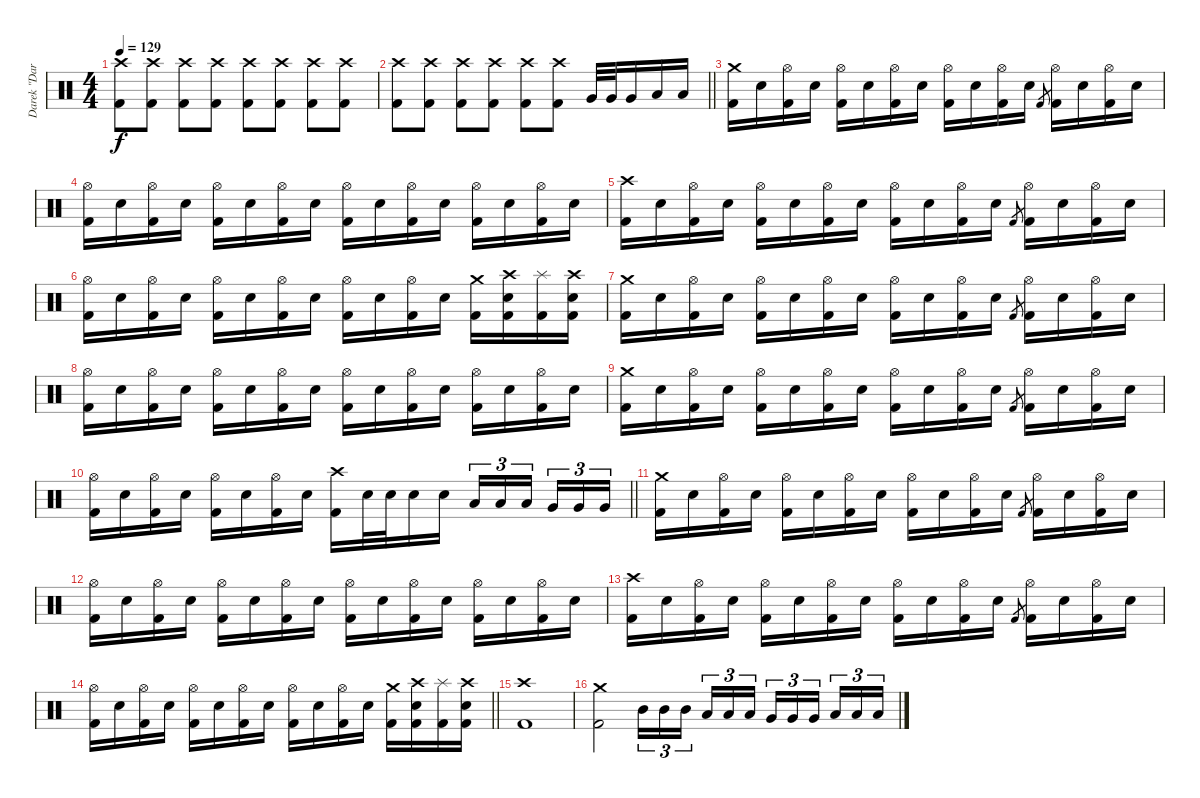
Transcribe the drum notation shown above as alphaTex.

\track ("Darek \"Daray\" Brzozowski " "Darek \"Dar") {instrument percussion}
\staff {score}
\articulation defaults
\ts (4 4)
\tempo 129
\clef neutral
\ks c
("Crash high (hit)" "Kick (hit) 2").8{dy f} ("Crash high (hit)" "Kick (hit) 2").8 ("Crash high (hit)" "Kick (hit) 2").8 ("Crash high (hit)" "Kick (hit) 2").8 ("Crash high (hit)" "Kick (hit) 2").8 ("Crash high (hit)" "Kick (hit) 2").8 ("Crash high (hit)" "Kick (hit) 2").8 ("Crash high (hit)" "Kick (hit) 2").8 |
\barLineRight lightlight
("Crash high (hit)" "Kick (hit) 2").8 ("Crash high (hit)" "Kick (hit) 2").8 ("Crash high (hit)" "Kick (hit) 2").8 ("Crash high (hit)" "Kick (hit) 2").8 ("Crash high (hit)" "Kick (hit) 2").8 ("Crash high (hit)" "Kick (hit) 2").8 "Very Low Tom (hit)".32 "Very Low Tom (hit)".32 "Very Low Tom (hit)".16 "Low Floor Tom (hit)".16 "Low Floor Tom (hit)".16 |
("Crash medium (hit)" "Kick (hit) 2").16 "Electric Snare (hit)".16 ("Hi-Hat (open)" "Kick (hit) 2").16 "Electric Snare (hit)".16 ("Hi-Hat (open)" "Kick (hit) 2").16 "Electric Snare (hit)".16 ("Hi-Hat (open)" "Kick (hit) 2").16 "Electric Snare (hit)".16 ("Hi-Hat (open)" "Kick (hit) 2").16 "Electric Snare (hit)".16 ("Hi-Hat (open)" "Kick (hit) 2").16 "Electric Snare (hit)".16 "Kick (hit) 2".8{gr} ("Hi-Hat (open)" "Kick (hit) 2").16 "Electric Snare (hit)".16 ("Hi-Hat (open)" "Kick (hit) 2").16 "Electric Snare (hit)".16 |
("Hi-Hat (open)" "Kick (hit) 2").16 "Electric Snare (hit)".16 ("Hi-Hat (open)" "Kick (hit) 2").16 "Electric Snare (hit)".16 ("Hi-Hat (open)" "Kick (hit) 2").16 "Electric Snare (hit)".16 ("Hi-Hat (open)" "Kick (hit) 2").16 "Electric Snare (hit)".16 ("Hi-Hat (open)" "Kick (hit) 2").16 "Electric Snare (hit)".16 ("Hi-Hat (open)" "Kick (hit) 2").16 "Electric Snare (hit)".16 ("Hi-Hat (open)" "Kick (hit) 2").16 "Electric Snare (hit)".16 ("Hi-Hat (open)" "Kick (hit) 2").16 "Electric Snare (hit)".16 |
("Crash high (hit)" "Kick (hit) 2").16 "Electric Snare (hit)".16 ("Hi-Hat (open)" "Kick (hit) 2").16 "Electric Snare (hit)".16 ("Hi-Hat (open)" "Kick (hit) 2").16 "Electric Snare (hit)".16 ("Hi-Hat (open)" "Kick (hit) 2").16 "Electric Snare (hit)".16 ("Hi-Hat (open)" "Kick (hit) 2").16 "Electric Snare (hit)".16 ("Hi-Hat (open)" "Kick (hit) 2").16 "Electric Snare (hit)".16 "Kick (hit) 2".8{gr} ("Hi-Hat (open)" "Kick (hit) 2").16 "Electric Snare (hit)".16 ("Hi-Hat (open)" "Kick (hit) 2").16 "Electric Snare (hit)".16 |
("Hi-Hat (open)" "Kick (hit) 2").16 "Electric Snare (hit)".16 ("Hi-Hat (open)" "Kick (hit) 2").16 "Electric Snare (hit)".16 ("Hi-Hat (open)" "Kick (hit) 2").16 "Electric Snare (hit)".16 ("Hi-Hat (open)" "Kick (hit) 2").16 "Electric Snare (hit)".16 ("Hi-Hat (open)" "Kick (hit) 2").16 "Electric Snare (hit)".16 ("Hi-Hat (open)" "Kick (hit) 2").16 "Electric Snare (hit)".16 ("Crash medium (hit)" "Kick (hit) 2").16 ("Crash high (hit)" "Electric Snare (hit)" "Kick (hit) 2").16 ("Splash (hit)" "Kick (hit) 2").16 ("Crash high (hit)" "Electric Snare (hit)" "Kick (hit) 2").16 |
("Crash medium (hit)" "Kick (hit) 2").16 "Electric Snare (hit)".16 ("Hi-Hat (open)" "Kick (hit) 2").16 "Electric Snare (hit)".16 ("Hi-Hat (open)" "Kick (hit) 2").16 "Electric Snare (hit)".16 ("Hi-Hat (open)" "Kick (hit) 2").16 "Electric Snare (hit)".16 ("Hi-Hat (open)" "Kick (hit) 2").16 "Electric Snare (hit)".16 ("Hi-Hat (open)" "Kick (hit) 2").16 "Electric Snare (hit)".16 "Kick (hit) 2".8{gr} ("Hi-Hat (open)" "Kick (hit) 2").16 "Electric Snare (hit)".16 ("Hi-Hat (open)" "Kick (hit) 2").16 "Electric Snare (hit)".16 |
("Hi-Hat (open)" "Kick (hit) 2").16 "Electric Snare (hit)".16 ("Hi-Hat (open)" "Kick (hit) 2").16 "Electric Snare (hit)".16 ("Hi-Hat (open)" "Kick (hit) 2").16 "Electric Snare (hit)".16 ("Hi-Hat (open)" "Kick (hit) 2").16 "Electric Snare (hit)".16 ("Hi-Hat (open)" "Kick (hit) 2").16 "Electric Snare (hit)".16 ("Hi-Hat (open)" "Kick (hit) 2").16 "Electric Snare (hit)".16 ("Hi-Hat (open)" "Kick (hit) 2").16 "Electric Snare (hit)".16 ("Hi-Hat (open)" "Kick (hit) 2").16 "Electric Snare (hit)".16 |
("Crash medium (hit)" "Kick (hit) 2").16 "Electric Snare (hit)".16 ("Hi-Hat (open)" "Kick (hit) 2").16 "Electric Snare (hit)".16 ("Hi-Hat (open)" "Kick (hit) 2").16 "Electric Snare (hit)".16 ("Hi-Hat (open)" "Kick (hit) 2").16 "Electric Snare (hit)".16 ("Hi-Hat (open)" "Kick (hit) 2").16 "Electric Snare (hit)".16 ("Hi-Hat (open)" "Kick (hit) 2").16 "Electric Snare (hit)".16 "Kick (hit) 2".8{gr} ("Hi-Hat (open)" "Kick (hit) 2").16 "Electric Snare (hit)".16 ("Hi-Hat (open)" "Kick (hit) 2").16 "Electric Snare (hit)".16 |
\barLineRight lightlight
("Hi-Hat (open)" "Kick (hit) 2").16 "Electric Snare (hit)".16 ("Hi-Hat (open)" "Kick (hit) 2").16 "Electric Snare (hit)".16 ("Hi-Hat (open)" "Kick (hit) 2").16 "Electric Snare (hit)".16 ("Hi-Hat (open)" "Kick (hit) 2").16 "Electric Snare (hit)".16 ("Crash high (hit)" "Kick (hit) 2").16 "Electric Snare (hit)".32 "Electric Snare (hit)".32 "Electric Snare (hit)".16 "Electric Snare (hit)".16 "Low Tom (hit)".16{tu (3 2)} "Low Tom (hit)".16{tu (3 2)} "Low Tom (hit)".16{tu (3 2) beam splitsecondary} "Very Low Tom (hit)".16{tu (3 2)} "Very Low Tom (hit)".16{tu (3 2)} "Very Low Tom (hit)".16{tu (3 2)} |
("Crash medium (hit)" "Kick (hit) 2").16 "Electric Snare (hit)".16 ("Hi-Hat (open)" "Kick (hit) 2").16 "Electric Snare (hit)".16 ("Hi-Hat (open)" "Kick (hit) 2").16 "Electric Snare (hit)".16 ("Hi-Hat (open)" "Kick (hit) 2").16 "Electric Snare (hit)".16 ("Hi-Hat (open)" "Kick (hit) 2").16 "Electric Snare (hit)".16 ("Hi-Hat (open)" "Kick (hit) 2").16 "Electric Snare (hit)".16 "Kick (hit) 2".8{gr} ("Hi-Hat (open)" "Kick (hit) 2").16 "Electric Snare (hit)".16 ("Hi-Hat (open)" "Kick (hit) 2").16 "Electric Snare (hit)".16 |
("Hi-Hat (open)" "Kick (hit) 2").16 "Electric Snare (hit)".16 ("Hi-Hat (open)" "Kick (hit) 2").16 "Electric Snare (hit)".16 ("Hi-Hat (open)" "Kick (hit) 2").16 "Electric Snare (hit)".16 ("Hi-Hat (open)" "Kick (hit) 2").16 "Electric Snare (hit)".16 ("Hi-Hat (open)" "Kick (hit) 2").16 "Electric Snare (hit)".16 ("Hi-Hat (open)" "Kick (hit) 2").16 "Electric Snare (hit)".16 ("Hi-Hat (open)" "Kick (hit) 2").16 "Electric Snare (hit)".16 ("Hi-Hat (open)" "Kick (hit) 2").16 "Electric Snare (hit)".16 |
("Crash high (hit)" "Kick (hit) 2").16 "Electric Snare (hit)".16 ("Hi-Hat (open)" "Kick (hit) 2").16 "Electric Snare (hit)".16 ("Hi-Hat (open)" "Kick (hit) 2").16 "Electric Snare (hit)".16 ("Hi-Hat (open)" "Kick (hit) 2").16 "Electric Snare (hit)".16 ("Hi-Hat (open)" "Kick (hit) 2").16 "Electric Snare (hit)".16 ("Hi-Hat (open)" "Kick (hit) 2").16 "Electric Snare (hit)".16 "Kick (hit) 2".8{gr} ("Hi-Hat (open)" "Kick (hit) 2").16 "Electric Snare (hit)".16 ("Hi-Hat (open)" "Kick (hit) 2").16 "Electric Snare (hit)".16 |
\barLineRight lightlight
("Hi-Hat (open)" "Kick (hit) 2").16 "Electric Snare (hit)".16 ("Hi-Hat (open)" "Kick (hit) 2").16 "Electric Snare (hit)".16 ("Hi-Hat (open)" "Kick (hit) 2").16 "Electric Snare (hit)".16 ("Hi-Hat (open)" "Kick (hit) 2").16 "Electric Snare (hit)".16 ("Hi-Hat (open)" "Kick (hit) 2").16 "Electric Snare (hit)".16 ("Hi-Hat (open)" "Kick (hit) 2").16 "Electric Snare (hit)".16 ("Crash medium (hit)" "Kick (hit) 2").16 ("Crash high (hit)" "Electric Snare (hit)" "Kick (hit) 2").16 ("Splash (hit)" "Kick (hit) 2").16 ("Crash high (hit)" "Electric Snare (hit)" "Kick (hit) 2").16 |
("Crash high (hit)" "Kick (hit) 2").1 |
("Crash medium (hit)" "Kick (hit) 2").2 "Mid Tom (hit)".16{tu (3 2)} "Mid Tom (hit)".16{tu (3 2)} "Mid Tom (hit)".16{tu (3 2) beam splitsecondary} "Low Tom (hit)".16{tu (3 2)} "Low Tom (hit)".16{tu (3 2)} "Low Tom (hit)".16{tu (3 2)} "Very Low Tom (hit)".16{tu (3 2)} "Very Low Tom (hit)".16{tu (3 2)} "Very Low Tom (hit)".16{tu (3 2) beam splitsecondary} "Low Floor Tom (hit)".16{tu (3 2)} "Low Floor Tom (hit)".16{tu (3 2)} "Low Floor Tom (hit)".16{tu (3 2)}
